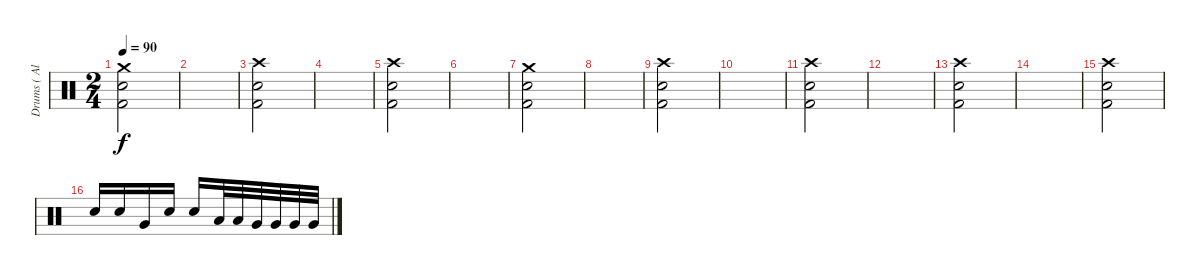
\track ("Drums ( Alex Holzwarth)" "Drums ( Al") {instrument percussion}
\staff {score}
\articulation defaults
\ts (2 4)
\tempo 90
\clef neutral
\ks c
("Crash medium (hit)" "Snare (hit) 2" "Kick (hit) 2").2{dy f} |
|
("Crash high (hit)" "Snare (hit) 2" "Kick (hit) 2").2 |
|
("Crash high (hit)" "Snare (hit) 2" "Kick (hit) 2").2 |
|
("Crash medium (hit)" "Snare (hit) 2" "Kick (hit) 2").2 |
|
("Crash high (hit)" "Snare (hit) 2" "Kick (hit) 2").2 |
|
("Crash high (hit)" "Snare (hit) 2" "Kick (hit) 2").2 |
|
("Crash high (hit)" "Snare (hit) 2" "Kick (hit) 2").2 |
|
("Crash high (hit)" "Snare (hit) 2" "Kick (hit) 2").2 |
"Electric Snare (hit)".16 "Electric Snare (hit)".16 "Very Low Tom (hit)".16 "Electric Snare (hit)".16 "Electric Snare (hit)".16 "Low Tom (hit)".32 "Low Tom (hit)".32 "Very Low Tom (hit)".32 "Very Low Tom (hit)".32 "Very Low Tom (hit)".32 "Very Low Tom (hit)".32
